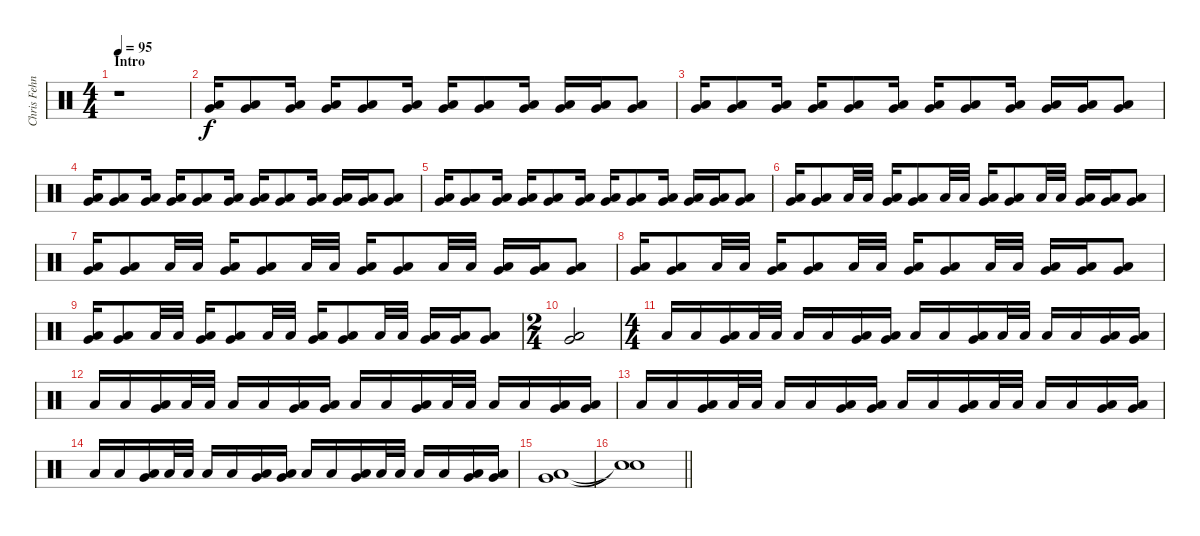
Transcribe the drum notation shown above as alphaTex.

\track ("Chris Fehn" "Chris Fehn") {instrument percussion}
\staff {score}
\articulation defaults
\ts (4 4)
\section ("" "Intro")
\tempo 95
\clef neutral
\ks c
r.1{dy f} |
("Very Low Tom (hit)" "Low Floor Tom (hit)").16 ("Very Low Tom (hit)" "Low Floor Tom (hit)").8 ("Very Low Tom (hit)" "Low Floor Tom (hit)").16 ("Very Low Tom (hit)" "Low Floor Tom (hit)").16 ("Very Low Tom (hit)" "Low Floor Tom (hit)").8 ("Very Low Tom (hit)" "Low Floor Tom (hit)").16 ("Very Low Tom (hit)" "Low Floor Tom (hit)").16 ("Very Low Tom (hit)" "Low Floor Tom (hit)").8 ("Very Low Tom (hit)" "Low Floor Tom (hit)").16 ("Very Low Tom (hit)" "Low Floor Tom (hit)").16 ("Very Low Tom (hit)" "Low Floor Tom (hit)").16 ("Very Low Tom (hit)" "Low Floor Tom (hit)").8 |
("Very Low Tom (hit)" "Low Floor Tom (hit)").16 ("Very Low Tom (hit)" "Low Floor Tom (hit)").8 ("Very Low Tom (hit)" "Low Floor Tom (hit)").16 ("Very Low Tom (hit)" "Low Floor Tom (hit)").16 ("Very Low Tom (hit)" "Low Floor Tom (hit)").8 ("Very Low Tom (hit)" "Low Floor Tom (hit)").16 ("Very Low Tom (hit)" "Low Floor Tom (hit)").16 ("Very Low Tom (hit)" "Low Floor Tom (hit)").8 ("Very Low Tom (hit)" "Low Floor Tom (hit)").16 ("Very Low Tom (hit)" "Low Floor Tom (hit)").16 ("Very Low Tom (hit)" "Low Floor Tom (hit)").16 ("Very Low Tom (hit)" "Low Floor Tom (hit)").8 |
("Very Low Tom (hit)" "Low Floor Tom (hit)").16 ("Very Low Tom (hit)" "Low Floor Tom (hit)").8 ("Very Low Tom (hit)" "Low Floor Tom (hit)").16 ("Very Low Tom (hit)" "Low Floor Tom (hit)").16 ("Very Low Tom (hit)" "Low Floor Tom (hit)").8 ("Very Low Tom (hit)" "Low Floor Tom (hit)").16 ("Very Low Tom (hit)" "Low Floor Tom (hit)").16 ("Very Low Tom (hit)" "Low Floor Tom (hit)").8 ("Very Low Tom (hit)" "Low Floor Tom (hit)").16 ("Very Low Tom (hit)" "Low Floor Tom (hit)").16 ("Very Low Tom (hit)" "Low Floor Tom (hit)").16 ("Very Low Tom (hit)" "Low Floor Tom (hit)").8 |
("Very Low Tom (hit)" "Low Floor Tom (hit)").16 ("Very Low Tom (hit)" "Low Floor Tom (hit)").8 ("Very Low Tom (hit)" "Low Floor Tom (hit)").16 ("Very Low Tom (hit)" "Low Floor Tom (hit)").16 ("Very Low Tom (hit)" "Low Floor Tom (hit)").8 ("Very Low Tom (hit)" "Low Floor Tom (hit)").16 ("Very Low Tom (hit)" "Low Floor Tom (hit)").16 ("Very Low Tom (hit)" "Low Floor Tom (hit)").8 ("Very Low Tom (hit)" "Low Floor Tom (hit)").16 ("Very Low Tom (hit)" "Low Floor Tom (hit)").16 ("Very Low Tom (hit)" "Low Floor Tom (hit)").16 ("Very Low Tom (hit)" "Low Floor Tom (hit)").8 |
("Very Low Tom (hit)" "Low Floor Tom (hit)").16 ("Very Low Tom (hit)" "Low Floor Tom (hit)").8 "Low Floor Tom (hit)".32 "Low Floor Tom (hit)".32 ("Very Low Tom (hit)" "Low Floor Tom (hit)").16 ("Very Low Tom (hit)" "Low Floor Tom (hit)").8 "Low Floor Tom (hit)".32 "Low Floor Tom (hit)".32 ("Very Low Tom (hit)" "Low Floor Tom (hit)").16 ("Very Low Tom (hit)" "Low Floor Tom (hit)").8 "Low Floor Tom (hit)".32 "Low Floor Tom (hit)".32 ("Very Low Tom (hit)" "Low Floor Tom (hit)").16 ("Very Low Tom (hit)" "Low Floor Tom (hit)").16 ("Very Low Tom (hit)" "Low Floor Tom (hit)").8 |
("Very Low Tom (hit)" "Low Floor Tom (hit)").16 ("Very Low Tom (hit)" "Low Floor Tom (hit)").8 "Low Floor Tom (hit)".32 "Low Floor Tom (hit)".32 ("Very Low Tom (hit)" "Low Floor Tom (hit)").16 ("Very Low Tom (hit)" "Low Floor Tom (hit)").8 "Low Floor Tom (hit)".32 "Low Floor Tom (hit)".32 ("Very Low Tom (hit)" "Low Floor Tom (hit)").16 ("Very Low Tom (hit)" "Low Floor Tom (hit)").8 "Low Floor Tom (hit)".32 "Low Floor Tom (hit)".32 ("Very Low Tom (hit)" "Low Floor Tom (hit)").16 ("Very Low Tom (hit)" "Low Floor Tom (hit)").16 ("Very Low Tom (hit)" "Low Floor Tom (hit)").8 |
("Very Low Tom (hit)" "Low Floor Tom (hit)").16 ("Very Low Tom (hit)" "Low Floor Tom (hit)").8 "Low Floor Tom (hit)".32 "Low Floor Tom (hit)".32 ("Very Low Tom (hit)" "Low Floor Tom (hit)").16 ("Very Low Tom (hit)" "Low Floor Tom (hit)").8 "Low Floor Tom (hit)".32 "Low Floor Tom (hit)".32 ("Very Low Tom (hit)" "Low Floor Tom (hit)").16 ("Very Low Tom (hit)" "Low Floor Tom (hit)").8 "Low Floor Tom (hit)".32 "Low Floor Tom (hit)".32 ("Very Low Tom (hit)" "Low Floor Tom (hit)").16 ("Very Low Tom (hit)" "Low Floor Tom (hit)").16 ("Very Low Tom (hit)" "Low Floor Tom (hit)").8 |
("Very Low Tom (hit)" "Low Floor Tom (hit)").16 ("Very Low Tom (hit)" "Low Floor Tom (hit)").8 "Low Floor Tom (hit)".32 "Low Floor Tom (hit)".32 ("Very Low Tom (hit)" "Low Floor Tom (hit)").16 ("Very Low Tom (hit)" "Low Floor Tom (hit)").8 "Low Floor Tom (hit)".32 "Low Floor Tom (hit)".32 ("Very Low Tom (hit)" "Low Floor Tom (hit)").16 ("Very Low Tom (hit)" "Low Floor Tom (hit)").8 "Low Floor Tom (hit)".32 "Low Floor Tom (hit)".32 ("Very Low Tom (hit)" "Low Floor Tom (hit)").16 ("Very Low Tom (hit)" "Low Floor Tom (hit)").16 ("Very Low Tom (hit)" "Low Floor Tom (hit)").8 |
\ts (2 4)
("Very Low Tom (hit)" "Low Floor Tom (hit)").2 |
\ts (4 4)
"Low Floor Tom (hit)".16 "Low Floor Tom (hit)".16 ("Very Low Tom (hit)" "Low Floor Tom (hit)").16 "Low Floor Tom (hit)".32 "Low Floor Tom (hit)".32 "Low Floor Tom (hit)".16 "Low Floor Tom (hit)".16 ("Very Low Tom (hit)" "Low Floor Tom (hit)").16 ("Very Low Tom (hit)" "Low Floor Tom (hit)").16 "Low Floor Tom (hit)".16 "Low Floor Tom (hit)".16 ("Very Low Tom (hit)" "Low Floor Tom (hit)").16 "Low Floor Tom (hit)".32 "Low Floor Tom (hit)".32 "Low Floor Tom (hit)".16 "Low Floor Tom (hit)".16 ("Very Low Tom (hit)" "Low Floor Tom (hit)").16 ("Very Low Tom (hit)" "Low Floor Tom (hit)").16 |
"Low Floor Tom (hit)".16 "Low Floor Tom (hit)".16 ("Very Low Tom (hit)" "Low Floor Tom (hit)").16 "Low Floor Tom (hit)".32 "Low Floor Tom (hit)".32 "Low Floor Tom (hit)".16 "Low Floor Tom (hit)".16 ("Very Low Tom (hit)" "Low Floor Tom (hit)").16 ("Very Low Tom (hit)" "Low Floor Tom (hit)").16 "Low Floor Tom (hit)".16 "Low Floor Tom (hit)".16 ("Very Low Tom (hit)" "Low Floor Tom (hit)").16 "Low Floor Tom (hit)".32 "Low Floor Tom (hit)".32 "Low Floor Tom (hit)".16 "Low Floor Tom (hit)".16 ("Very Low Tom (hit)" "Low Floor Tom (hit)").16 ("Very Low Tom (hit)" "Low Floor Tom (hit)").16 |
"Low Floor Tom (hit)".16 "Low Floor Tom (hit)".16 ("Very Low Tom (hit)" "Low Floor Tom (hit)").16 "Low Floor Tom (hit)".32 "Low Floor Tom (hit)".32 "Low Floor Tom (hit)".16 "Low Floor Tom (hit)".16 ("Very Low Tom (hit)" "Low Floor Tom (hit)").16 ("Very Low Tom (hit)" "Low Floor Tom (hit)").16 "Low Floor Tom (hit)".16 "Low Floor Tom (hit)".16 ("Very Low Tom (hit)" "Low Floor Tom (hit)").16 "Low Floor Tom (hit)".32 "Low Floor Tom (hit)".32 "Low Floor Tom (hit)".16 "Low Floor Tom (hit)".16 ("Very Low Tom (hit)" "Low Floor Tom (hit)").16 ("Very Low Tom (hit)" "Low Floor Tom (hit)").16 |
"Low Floor Tom (hit)".16 "Low Floor Tom (hit)".16 ("Very Low Tom (hit)" "Low Floor Tom (hit)").16 "Low Floor Tom (hit)".32 "Low Floor Tom (hit)".32 "Low Floor Tom (hit)".16 "Low Floor Tom (hit)".16 ("Very Low Tom (hit)" "Low Floor Tom (hit)").16 ("Very Low Tom (hit)" "Low Floor Tom (hit)").16 "Low Floor Tom (hit)".16 "Low Floor Tom (hit)".16 ("Very Low Tom (hit)" "Low Floor Tom (hit)").16 "Low Floor Tom (hit)".32 "Low Floor Tom (hit)".32 "Low Floor Tom (hit)".16 "Low Floor Tom (hit)".16 ("Very Low Tom (hit)" "Low Floor Tom (hit)").16 ("Very Low Tom (hit)" "Low Floor Tom (hit)").16 |
("Very Low Tom (hit)" "Low Floor Tom (hit)").1 |
\barLineRight lightlight
("Snare (hit)"{t} "Snare (hit)"{t}).1
